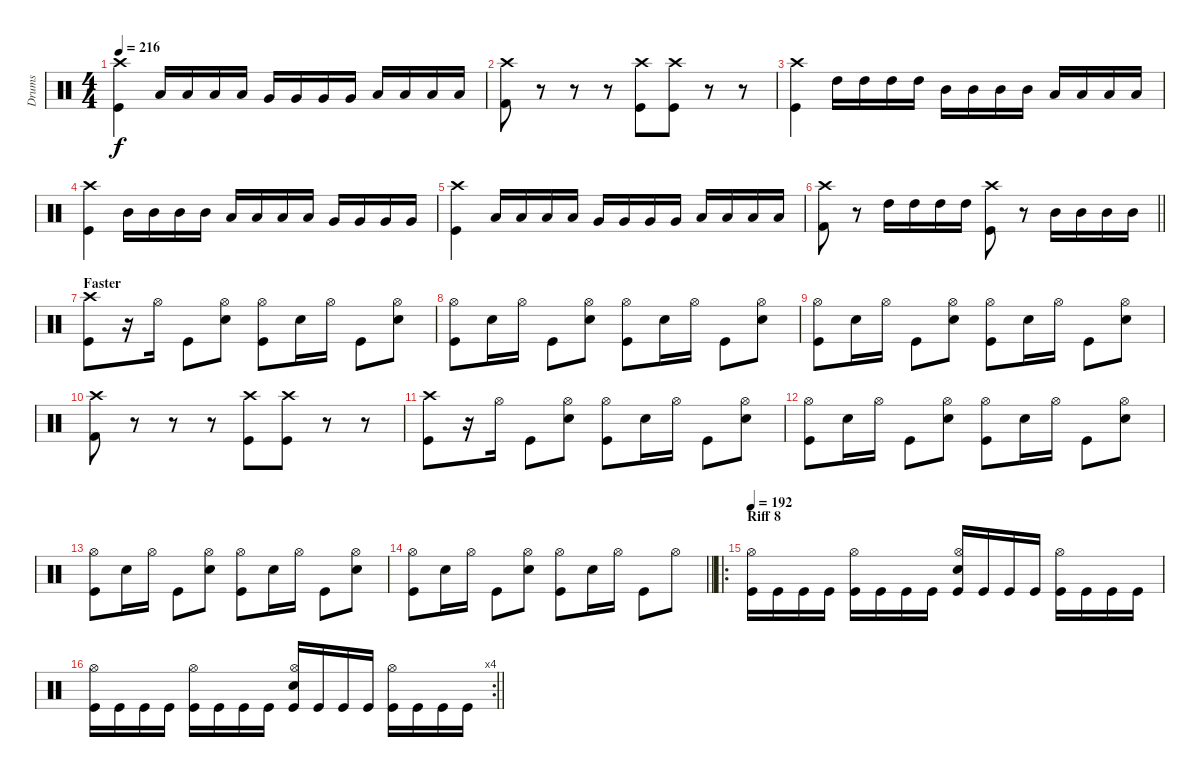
\track ("Drums" "Drums") {instrument percussion}
\staff {score}
\articulation defaults
\ts (4 4)
\tempo 216
\clef neutral
\ks c
("Crash high (hit)" "Kick (hit)").4{dy f} "Low Tom (hit)".16 "Low Tom (hit)".16 "Low Tom (hit)".16 "Low Tom (hit)".16 "Very Low Tom (hit)".16 "Very Low Tom (hit)".16 "Very Low Tom (hit)".16 "Very Low Tom (hit)".16 "Low Floor Tom (hit)".16 "Low Floor Tom (hit)".16 "Low Floor Tom (hit)".16 "Low Floor Tom (hit)".16 |
("Crash high (hit)" "Kick (hit) 2").8 r.8 r.8 r.8 ("Crash high (hit)" "Kick (hit)").8 ("Crash high (hit)" "Kick (hit)").8 r.8 r.8 |
("Crash high (hit)" "Kick (hit)").4 "High Tom (hit)".16 "High Tom (hit)".16 "High Tom (hit)".16 "High Tom (hit)".16 "Mid Tom (hit)".16 "Mid Tom (hit)".16 "Mid Tom (hit)".16 "Mid Tom (hit)".16 "Low Tom (hit)".16 "Low Tom (hit)".16 "Low Tom (hit)".16 "Low Tom (hit)".16 |
("Crash high (hit)" "Kick (hit)").4 "Mid Tom (hit)".16 "Mid Tom (hit)".16 "Mid Tom (hit)".16 "Mid Tom (hit)".16 "Low Tom (hit)".16 "Low Tom (hit)".16 "Low Tom (hit)".16 "Low Tom (hit)".16 "Very Low Tom (hit)".16 "Very Low Tom (hit)".16 "Very Low Tom (hit)".16 "Very Low Tom (hit)".16 |
("Crash high (hit)" "Kick (hit)").4 "Low Tom (hit)".16 "Low Tom (hit)".16 "Low Tom (hit)".16 "Low Tom (hit)".16 "Very Low Tom (hit)".16 "Very Low Tom (hit)".16 "Very Low Tom (hit)".16 "Very Low Tom (hit)".16 "Low Floor Tom (hit)".16 "Low Floor Tom (hit)".16 "Low Floor Tom (hit)".16 "Low Floor Tom (hit)".16 |
\barLineRight lightlight
("Crash high (hit)" "Kick (hit) 2").8 r.8 "High Tom (hit)".16 "High Tom (hit)".16 "High Tom (hit)".16 "High Tom (hit)".16 ("Crash high (hit)" "Kick (hit)").8 r.8 "Mid Tom (hit)".16 "Mid Tom (hit)".16 "Mid Tom (hit)".16 "Mid Tom (hit)".16 |
\section ("" "Faster")
("Crash high (hit)" "Kick (hit)").8 r.16 "Hi-Hat (open)".16 "Kick (hit)".8 ("Hi-Hat (open)" "Snare (hit) 2").8 ("Hi-Hat (open)" "Kick (hit)").8 "Snare (hit) 2".16 "Hi-Hat (open)".16 "Kick (hit)".8 ("Hi-Hat (open)" "Snare (hit) 2").8 |
("Hi-Hat (open)" "Kick (hit)").8 "Snare (hit) 2".16 "Hi-Hat (open)".16 "Kick (hit)".8 ("Hi-Hat (open)" "Snare (hit) 2").8 ("Hi-Hat (open)" "Kick (hit)").8 "Snare (hit) 2".16 "Hi-Hat (open)".16 "Kick (hit)".8 ("Hi-Hat (open)" "Snare (hit) 2").8 |
("Hi-Hat (open)" "Kick (hit)").8 "Snare (hit) 2".16 "Hi-Hat (open)".16 "Kick (hit)".8 ("Hi-Hat (open)" "Snare (hit) 2").8 ("Hi-Hat (open)" "Kick (hit)").8 "Snare (hit) 2".16 "Hi-Hat (open)".16 "Kick (hit)".8 ("Hi-Hat (open)" "Snare (hit) 2").8 |
("Crash high (hit)" "Kick (hit) 2").8 r.8 r.8 r.8 ("Crash high (hit)" "Kick (hit)").8 ("Crash high (hit)" "Kick (hit)").8 r.8 r.8 |
("Crash high (hit)" "Kick (hit)").8 r.16 "Hi-Hat (open)".16 "Kick (hit)".8 ("Hi-Hat (open)" "Snare (hit) 2").8 ("Hi-Hat (open)" "Kick (hit)").8 "Snare (hit) 2".16 "Hi-Hat (open)".16 "Kick (hit)".8 ("Hi-Hat (open)" "Snare (hit) 2").8 |
("Hi-Hat (open)" "Kick (hit)").8 "Snare (hit) 2".16 "Hi-Hat (open)".16 "Kick (hit)".8 ("Hi-Hat (open)" "Snare (hit) 2").8 ("Hi-Hat (open)" "Kick (hit)").8 "Snare (hit) 2".16 "Hi-Hat (open)".16 "Kick (hit)".8 ("Hi-Hat (open)" "Snare (hit) 2").8 |
("Hi-Hat (open)" "Kick (hit)").8 "Snare (hit) 2".16 "Hi-Hat (open)".16 "Kick (hit)".8 ("Hi-Hat (open)" "Snare (hit) 2").8 ("Hi-Hat (open)" "Kick (hit)").8 "Snare (hit) 2".16 "Hi-Hat (open)".16 "Kick (hit)".8 ("Hi-Hat (open)" "Snare (hit) 2").8 |
\barLineRight lightlight
("Hi-Hat (open)" "Kick (hit)").8 "Snare (hit) 2".16 "Hi-Hat (open)".16 "Kick (hit)".8 ("Hi-Hat (open)" "Snare (hit) 2").8 ("Hi-Hat (open)" "Kick (hit)").8 "Snare (hit) 2".16 "Hi-Hat (open)".16 "Kick (hit)".8 "Hi-Hat (open)".8 |
\ro
\section ("" "Riff 8")
\tempo 192
("Hi-Hat (open)" "Kick (hit)").16 "Kick (hit)".16 "Kick (hit)".16 "Kick (hit)".16 ("Hi-Hat (open)" "Kick (hit)").16 "Kick (hit)".16 "Kick (hit)".16 "Kick (hit)".16 ("Hi-Hat (open)" "Snare (hit) 2" "Kick (hit)").16 "Kick (hit)".16 "Kick (hit)".16 "Kick (hit)".16 ("Hi-Hat (open)" "Kick (hit)").16 "Kick (hit)".16 "Kick (hit)".16 "Kick (hit)".16 |
\rc 4
\barLineRight lightlight
("Hi-Hat (open)" "Kick (hit)").16 "Kick (hit)".16 "Kick (hit)".16 "Kick (hit)".16 ("Hi-Hat (open)" "Kick (hit)").16 "Kick (hit)".16 "Kick (hit)".16 "Kick (hit)".16 ("Hi-Hat (open)" "Snare (hit) 2" "Kick (hit)").16 "Kick (hit)".16 "Kick (hit)".16 "Kick (hit)".16 ("Hi-Hat (open)" "Kick (hit)").16 "Kick (hit)".16 "Kick (hit)".16 "Kick (hit)".16
